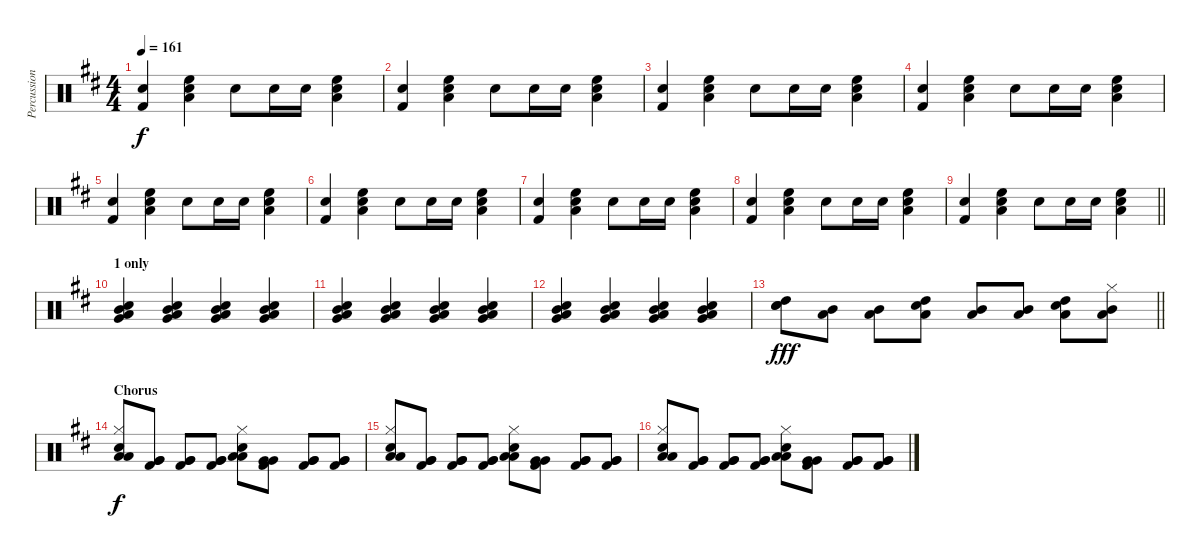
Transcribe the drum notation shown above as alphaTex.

\track ("Percussion" "Percussion") {instrument percussion}
\staff {score}
\articulation defaults
\ts (4 4)
\tempo 161
\clef neutral
\ks d
("Kick (hit) 2" "Electric Snare (hit)").4{dy f} ("Low Tom (hit)" "High Floor Tom (hit)" "Electric Snare (hit)").4 "Electric Snare (hit)".8 "Electric Snare (hit)".16 "Electric Snare (hit)".16 ("Low Tom (hit)" "High Floor Tom (hit)" "Electric Snare (hit)").4 |
("Kick (hit) 2" "Electric Snare (hit)").4 ("Low Tom (hit)" "High Floor Tom (hit)" "Electric Snare (hit)").4 "Electric Snare (hit)".8 "Electric Snare (hit)".16 "Electric Snare (hit)".16 ("Low Tom (hit)" "High Floor Tom (hit)" "Electric Snare (hit)").4 |
("Kick (hit) 2" "Electric Snare (hit)").4 ("Low Tom (hit)" "High Floor Tom (hit)" "Electric Snare (hit)").4 "Electric Snare (hit)".8 "Electric Snare (hit)".16 "Electric Snare (hit)".16 ("Low Tom (hit)" "High Floor Tom (hit)" "Electric Snare (hit)").4 |
("Kick (hit) 2" "Electric Snare (hit)").4 ("Low Tom (hit)" "High Floor Tom (hit)" "Electric Snare (hit)").4 "Electric Snare (hit)".8 "Electric Snare (hit)".16 "Electric Snare (hit)".16 ("Low Tom (hit)" "High Floor Tom (hit)" "Electric Snare (hit)").4 |
("Kick (hit) 2" "Electric Snare (hit)").4 ("Low Tom (hit)" "High Floor Tom (hit)" "Electric Snare (hit)").4 "Electric Snare (hit)".8 "Electric Snare (hit)".16 "Electric Snare (hit)".16 ("Low Tom (hit)" "High Floor Tom (hit)" "Electric Snare (hit)").4 |
("Kick (hit) 2" "Electric Snare (hit)").4 ("Low Tom (hit)" "High Floor Tom (hit)" "Electric Snare (hit)").4 "Electric Snare (hit)".8 "Electric Snare (hit)".16 "Electric Snare (hit)".16 ("Low Tom (hit)" "High Floor Tom (hit)" "Electric Snare (hit)").4 |
("Kick (hit) 2" "Electric Snare (hit)").4 ("Low Tom (hit)" "High Floor Tom (hit)" "Electric Snare (hit)").4 "Electric Snare (hit)".8 "Electric Snare (hit)".16 "Electric Snare (hit)".16 ("Low Tom (hit)" "High Floor Tom (hit)" "Electric Snare (hit)").4 |
("Kick (hit) 2" "Electric Snare (hit)").4 ("Low Tom (hit)" "High Floor Tom (hit)" "Electric Snare (hit)").4 "Electric Snare (hit)".8 "Electric Snare (hit)".16 "Electric Snare (hit)".16 ("Low Tom (hit)" "High Floor Tom (hit)" "Electric Snare (hit)").4 |
\barLineRight lightlight
("Kick (hit) 2" "Electric Snare (hit)").4 ("Low Tom (hit)" "High Floor Tom (hit)" "Electric Snare (hit)").4 "Electric Snare (hit)".8 "Electric Snare (hit)".16 "Electric Snare (hit)".16 ("Low Tom (hit)" "High Floor Tom (hit)" "Electric Snare (hit)").4 |
\section ("" "1 only")
("Low Tom (hit)" "Mid Tom (hit)" "Electric Snare (hit)" "Very Low Tom (hit)").4 ("Low Tom (hit)" "Mid Tom (hit)" "Electric Snare (hit)" "Very Low Tom (hit)").4 ("Low Tom (hit)" "Mid Tom (hit)" "Electric Snare (hit)" "Very Low Tom (hit)").4 ("Low Tom (hit)" "Mid Tom (hit)" "Electric Snare (hit)" "Very Low Tom (hit)").4 |
("Low Tom (hit)" "Mid Tom (hit)" "Electric Snare (hit)" "Very Low Tom (hit)").4 ("Low Tom (hit)" "Mid Tom (hit)" "Electric Snare (hit)" "Very Low Tom (hit)").4 ("Low Tom (hit)" "Mid Tom (hit)" "Electric Snare (hit)" "Very Low Tom (hit)").4 ("Low Tom (hit)" "Mid Tom (hit)" "Electric Snare (hit)" "Very Low Tom (hit)").4 |
("Low Tom (hit)" "Mid Tom (hit)" "Electric Snare (hit)" "Very Low Tom (hit)").4 ("Low Tom (hit)" "Mid Tom (hit)" "Electric Snare (hit)" "Very Low Tom (hit)").4 ("Low Tom (hit)" "Mid Tom (hit)" "Electric Snare (hit)" "Very Low Tom (hit)").4 ("Low Tom (hit)" "Mid Tom (hit)" "Electric Snare (hit)" "Very Low Tom (hit)").4 |
\barLineRight lightlight
("Electric Snare (hit)" "Electric Snare (hit)" "High Tom (hit)").8{dy fff} ("Mid Tom (hit)" "Low Tom (hit)").8 ("Mid Tom (hit)" "Low Tom (hit)").8 ("Electric Snare (hit)" "Low Tom (hit)" "High Tom (hit)").8 ("Mid Tom (hit)" "Low Tom (hit)").8 ("Mid Tom (hit)" "Low Tom (hit)").8 ("Electric Snare (hit)" "Low Tom (hit)" "High Tom (hit)").8 ("Hi-Hat (closed)" "Mid Tom (hit)" "Low Tom (hit)").8 |
\section ("" "Chorus")
("Hi-Hat (closed)" "Low Floor Tom (hit)" "Low Floor Tom (hit)" "Electric Snare (hit)").8{dy f} ("Kick (hit) 2" "Very Low Tom (hit)" "Very Low Tom (hit)").8 ("Kick (hit) 2" "Very Low Tom (hit)" "Very Low Tom (hit)").8 ("Kick (hit) 2" "Very Low Tom (hit)" "Very Low Tom (hit)").8 ("Hi-Hat (closed)" "Low Tom (hit)" "Low Tom (hit)" "Electric Snare (hit)").8 ("Kick (hit) 2" "Very Low Tom (hit)" "Very Low Tom (hit)").8 ("Kick (hit) 2" "Very Low Tom (hit)" "Very Low Tom (hit)").8 ("Kick (hit) 2" "Very Low Tom (hit)" "Very Low Tom (hit)").8 |
("Hi-Hat (closed)" "Low Floor Tom (hit)" "Low Floor Tom (hit)" "Electric Snare (hit)").8 ("Kick (hit) 2" "Very Low Tom (hit)" "Very Low Tom (hit)").8 ("Kick (hit) 2" "Very Low Tom (hit)" "Very Low Tom (hit)").8 ("Kick (hit) 2" "Very Low Tom (hit)" "Very Low Tom (hit)").8 ("Hi-Hat (closed)" "Low Tom (hit)" "Low Tom (hit)" "Electric Snare (hit)").8 ("Kick (hit) 2" "Very Low Tom (hit)" "Very Low Tom (hit)").8 ("Kick (hit) 2" "Very Low Tom (hit)" "Very Low Tom (hit)").8 ("Kick (hit) 2" "Very Low Tom (hit)" "Very Low Tom (hit)").8 |
("Hi-Hat (closed)" "Low Floor Tom (hit)" "Low Floor Tom (hit)" "Electric Snare (hit)").8 ("Kick (hit) 2" "Very Low Tom (hit)" "Very Low Tom (hit)").8 ("Kick (hit) 2" "Very Low Tom (hit)" "Very Low Tom (hit)").8 ("Kick (hit) 2" "Very Low Tom (hit)" "Very Low Tom (hit)").8 ("Hi-Hat (closed)" "Low Tom (hit)" "Low Tom (hit)" "Electric Snare (hit)").8 ("Kick (hit) 2" "Very Low Tom (hit)" "Very Low Tom (hit)").8 ("Kick (hit) 2" "Very Low Tom (hit)" "Very Low Tom (hit)").8 ("Kick (hit) 2" "Very Low Tom (hit)" "Very Low Tom (hit)").8
